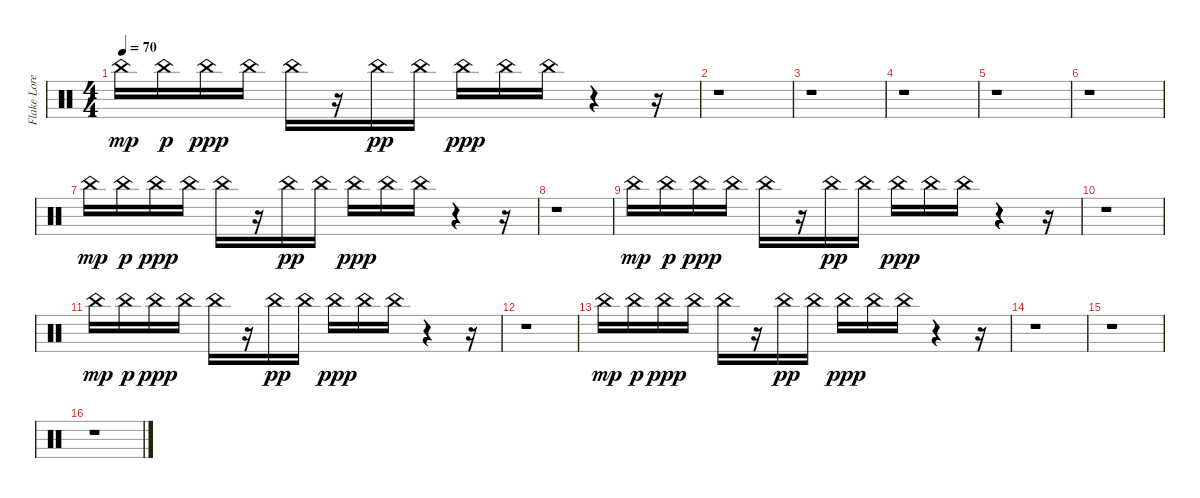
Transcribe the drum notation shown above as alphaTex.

\track ("Flake Lorenz" "Flake Lore") {instrument percussion}
\staff {score}
\articulation defaults
\ts (4 4)
\tempo 70
\clef neutral
\ks c "China (hit)".16{dy mp} "China (hit)".16{dy p} "China (hit)".16{dy ppp} "China (hit)".16 "China (hit)".16
r.16 "China (hit)".16{dy pp} "China (hit)".16 "China (hit)".16{dy ppp} "China (hit)".16 "China (hit)".16 r.4 r.16 |
r.1 |
r.1 |
r.1 |
r.1 |
r.1 |
"China (hit)".16{dy mp} "China (hit)".16{dy p} "China (hit)".16{dy ppp} "China (hit)".16 "China (hit)".16 r.16 "China (hit)".16{dy pp} "China (hit)".16 "China (hit)".16{dy ppp} "China (hit)".16 "China (hit)".16 r.4 r.16 |
r.1 |
"China (hit)".16{dy mp} "China (hit)".16{dy p} "China (hit)".16{dy ppp} "China (hit)".16 "China (hit)".16 r.16 "China (hit)".16{dy pp} "China (hit)".16 "China (hit)".16{dy ppp} "China (hit)".16 "China (hit)".16 r.4 r.16 |
r.1 |
"China (hit)".16{dy mp} "China (hit)".16{dy p} "China (hit)".16{dy ppp} "China (hit)".16 "China (hit)".16 r.16 "China (hit)".16{dy pp} "China (hit)".16 "China (hit)".16{dy ppp} "China (hit)".16 "China (hit)".16 r.4 r.16 |
r.1 |
"China (hit)".16{dy mp} "China (hit)".16{dy p} "China (hit)".16{dy ppp} "China (hit)".16 "China (hit)".16 r.16 "China (hit)".16{dy pp} "China (hit)".16 "China (hit)".16{dy ppp} "China (hit)".16 "China (hit)".16 r.4 r.16 |
r.1 |
r.1 |
r.1
